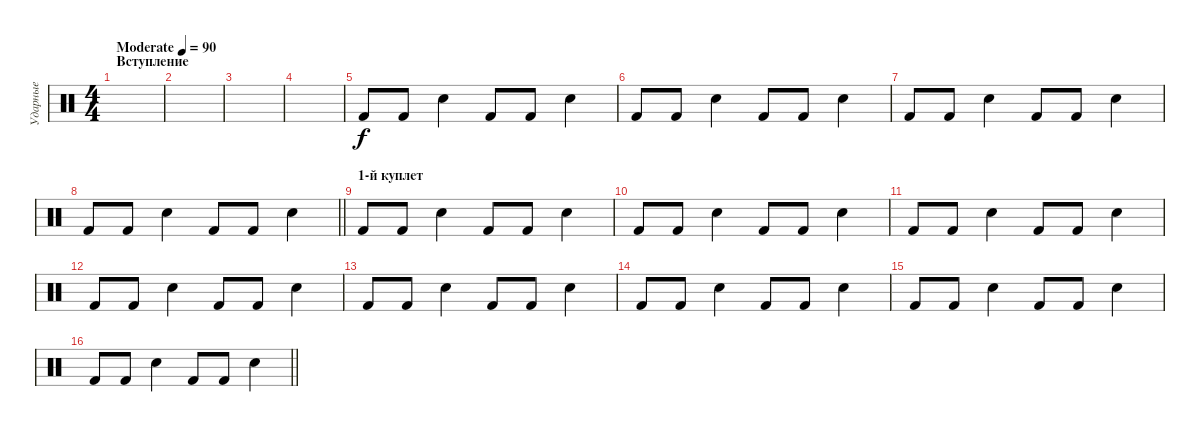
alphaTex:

\track ("Ударные" "Ударные") {instrument percussion}
\staff {score}
\articulation defaults
\ts (4 4)
\section ("" "Вступление")
\tempo (90 "Moderate")
\clef neutral
\ks c
|
|
|
|
"Kick (hit) 2".8 "Kick (hit) 2".8 "Electric Snare (hit)".4 "Kick (hit) 2".8 "Kick (hit) 2".8 "Electric Snare (hit)".4 |
"Kick (hit) 2".8 "Kick (hit) 2".8 "Electric Snare (hit)".4 "Kick (hit) 2".8 "Kick (hit) 2".8 "Electric Snare (hit)".4 |
"Kick (hit) 2".8 "Kick (hit) 2".8 "Electric Snare (hit)".4 "Kick (hit) 2".8 "Kick (hit) 2".8 "Electric Snare (hit)".4 |
\barLineRight lightlight "Kick (hit) 2".8 "Kick (hit) 2".8 "Electric Snare (hit)".4 "Kick (hit) 2".8 "Kick (hit) 2".8 "Electric Snare (hit)".4
|
\section ("" "1-й куплет")
"Kick (hit) 2".8 "Kick (hit) 2".8 "Electric Snare (hit)".4 "Kick (hit) 2".8 "Kick (hit) 2".8 "Electric Snare (hit)".4 |
"Kick (hit) 2".8 "Kick (hit) 2".8 "Electric Snare (hit)".4 "Kick (hit) 2".8 "Kick (hit) 2".8 "Electric Snare (hit)".4 |
"Kick (hit) 2".8 "Kick (hit) 2".8 "Electric Snare (hit)".4 "Kick (hit) 2".8 "Kick (hit) 2".8 "Electric Snare (hit)".4 |
"Kick (hit) 2".8 "Kick (hit) 2".8 "Electric Snare (hit)".4 "Kick (hit) 2".8 "Kick (hit) 2".8 "Electric Snare (hit)".4 |
"Kick (hit) 2".8 "Kick (hit) 2".8 "Electric Snare (hit)".4 "Kick (hit) 2".8 "Kick (hit) 2".8 "Electric Snare (hit)".4 |
"Kick (hit) 2".8 "Kick (hit) 2".8 "Electric Snare (hit)".4 "Kick (hit) 2".8 "Kick (hit) 2".8 "Electric Snare (hit)".4 |
"Kick (hit) 2".8 "Kick (hit) 2".8 "Electric Snare (hit)".4 "Kick (hit) 2".8 "Kick (hit) 2".8 "Electric Snare (hit)".4 |
\barLineRight lightlight "Kick (hit) 2".8 "Kick (hit) 2".8 "Electric Snare (hit)".4 "Kick (hit) 2".8 "Kick (hit) 2".8 "Electric Snare (hit)".4
